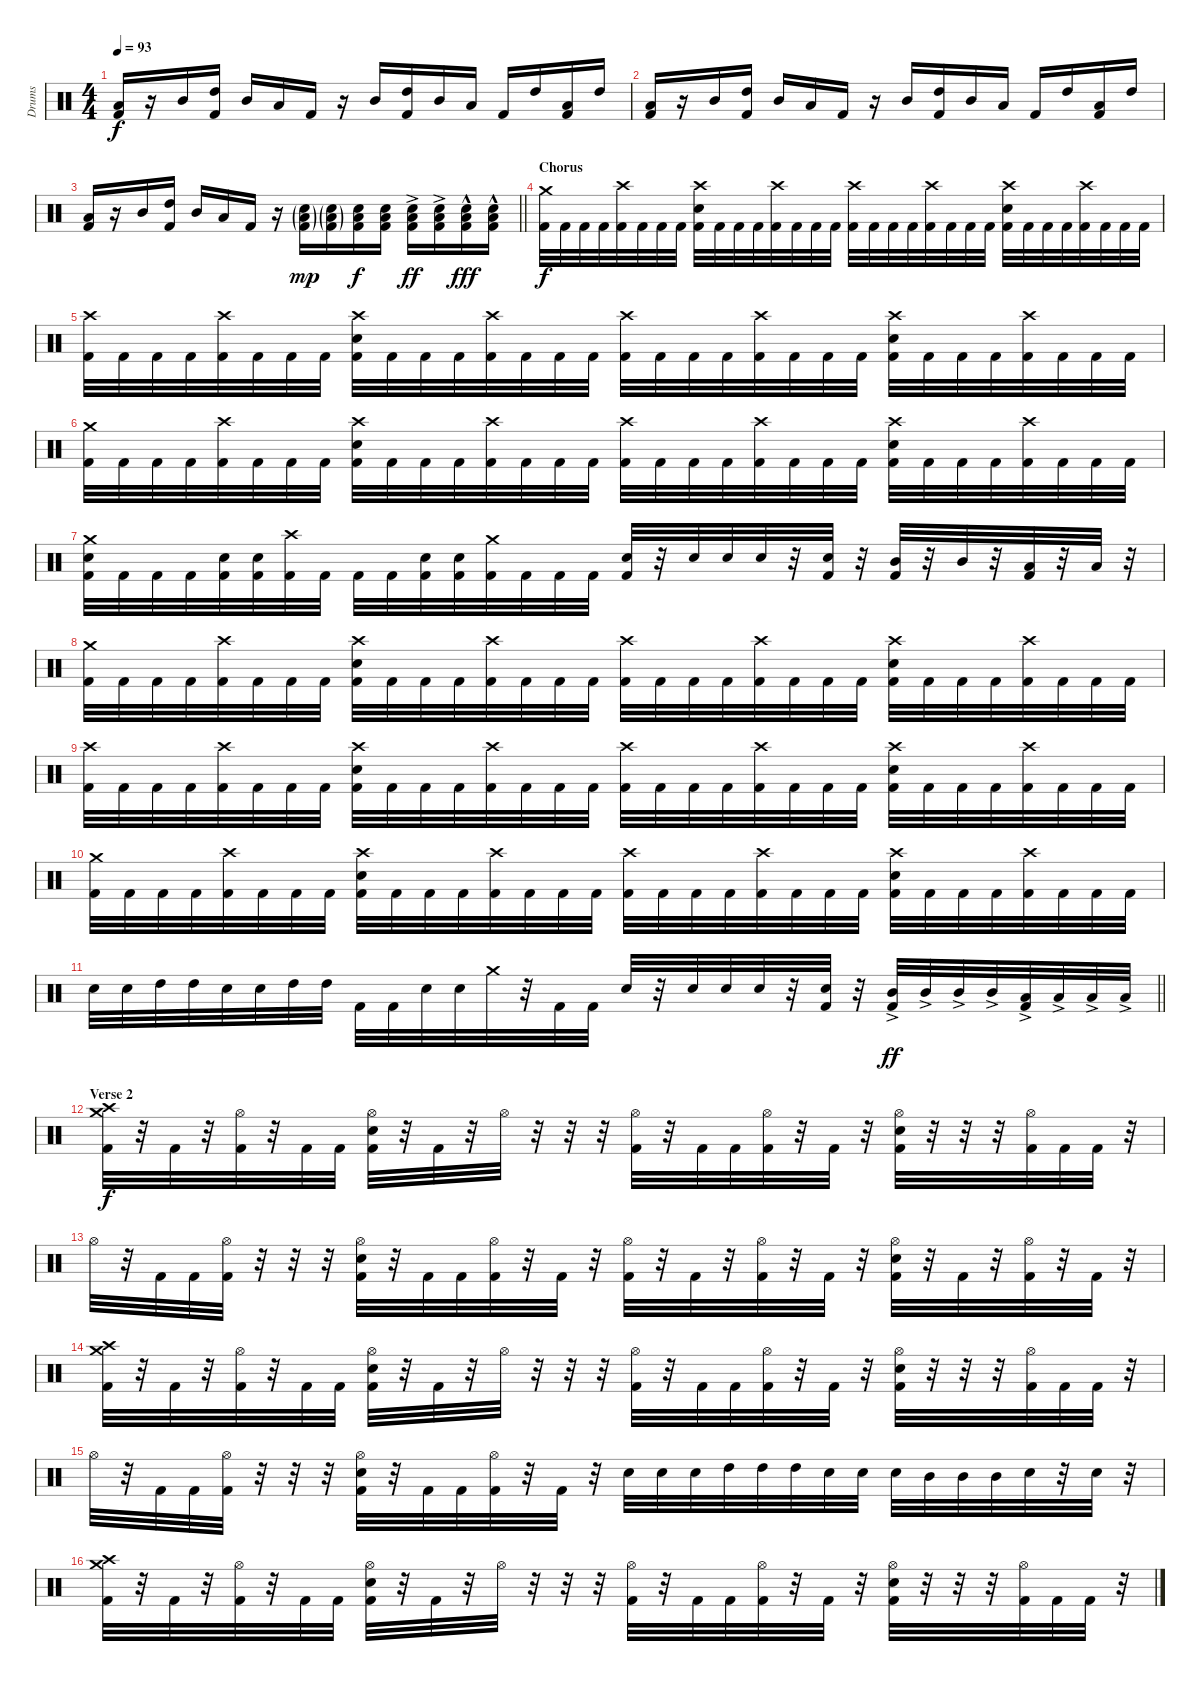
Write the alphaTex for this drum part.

\track ("Drums" "Drums") {instrument percussion}
\staff {score}
\articulation defaults
\ts (4 4)
\tempo 93
\clef neutral
\ks c
("Low Tom (hit)" "Kick (hit) 2").16{dy f} r.16 "Mid Tom (hit)".16 ("High Tom (hit)" "Kick (hit) 2").16 "Mid Tom (hit)".16 "Low Tom (hit)".16 "Kick (hit) 2".16 r.16 "Mid Tom (hit)".16 ("High Tom (hit)" "Kick (hit) 2").16 "Mid Tom (hit)".16 "Low Tom (hit)".16 "Kick (hit) 2".16 "High Tom (hit)".16 ("Low Tom (hit)" "Kick (hit) 2").16 "High Tom (hit)".16 |
("Low Tom (hit)" "Kick (hit) 2").16 r.16 "Mid Tom (hit)".16 ("High Tom (hit)" "Kick (hit) 2").16 "Mid Tom (hit)".16 "Low Tom (hit)".16 "Kick (hit) 2".16 r.16 "Mid Tom (hit)".16 ("High Tom (hit)" "Kick (hit) 2").16 "Mid Tom (hit)".16 "Low Tom (hit)".16 "Kick (hit) 2".16 "High Tom (hit)".16 ("Low Tom (hit)" "Kick (hit) 2").16 "High Tom (hit)".16 |
\barLineRight lightlight
("Low Tom (hit)" "Kick (hit) 2").16 r.16 "Mid Tom (hit)".16 ("High Tom (hit)" "Kick (hit) 2").16 "Mid Tom (hit)".16 "Low Tom (hit)".16 "Kick (hit) 2".16 r.16 ("Low Tom (hit)"{g} "Snare (hit) 2"{g} "Kick (hit) 2"{g}).16{dy mp} ("Low Tom (hit)"{g} "Snare (hit) 2"{g} "Kick (hit) 2"{g}).16 ("Low Tom (hit)" "Snare (hit) 2" "Kick (hit) 2").16{dy f} ("Low Tom (hit)" "Snare (hit) 2" "Kick (hit) 2").16 ("Low Tom (hit)"{ac} "Snare (hit) 2"{ac} "Kick (hit) 2"{ac}).16{dy ff} ("Low Tom (hit)"{ac} "Snare (hit) 2"{ac} "Kick (hit) 2"{ac}).16 ("Low Tom (hit)"{hac} "Snare (hit) 2"{hac} "Kick (hit) 2"{hac}).16{dy fff} ("Low Tom (hit)"{hac} "Snare (hit) 2"{hac} "Kick (hit) 2"{hac}).16 |
\section ("" "Chorus")
("Crash medium (hit)" "Kick (hit) 2").32{dy f} "Kick (hit) 2".32 "Kick (hit) 2".32 "Kick (hit) 2".32 ("Crash high (hit)" "Kick (hit) 2").32 "Kick (hit) 2".32 "Kick (hit) 2".32 "Kick (hit) 2".32 ("Crash high (hit)" "Snare (hit) 2" "Kick (hit) 2").32 "Kick (hit) 2".32 "Kick (hit) 2".32 "Kick (hit) 2".32 ("Crash high (hit)" "Kick (hit) 2").32 "Kick (hit) 2".32 "Kick (hit) 2".32 "Kick (hit) 2".32 ("Crash high (hit)" "Kick (hit) 2").32 "Kick (hit) 2".32 "Kick (hit) 2".32 "Kick (hit) 2".32 ("Crash high (hit)" "Kick (hit) 2").32 "Kick (hit) 2".32 "Kick (hit) 2".32 "Kick (hit) 2".32 ("Crash high (hit)" "Snare (hit) 2" "Kick (hit) 2").32 "Kick (hit) 2".32 "Kick (hit) 2".32 "Kick (hit) 2".32 ("Crash high (hit)" "Kick (hit) 2").32 "Kick (hit) 2".32 "Kick (hit) 2".32 "Kick (hit) 2".32 |
("Crash high (hit)" "Kick (hit) 2").32 "Kick (hit) 2".32 "Kick (hit) 2".32 "Kick (hit) 2".32 ("Crash high (hit)" "Kick (hit) 2").32 "Kick (hit) 2".32 "Kick (hit) 2".32 "Kick (hit) 2".32 ("Crash high (hit)" "Snare (hit) 2" "Kick (hit) 2").32 "Kick (hit) 2".32 "Kick (hit) 2".32 "Kick (hit) 2".32 ("Crash high (hit)" "Kick (hit) 2").32 "Kick (hit) 2".32 "Kick (hit) 2".32 "Kick (hit) 2".32 ("Crash high (hit)" "Kick (hit) 2").32 "Kick (hit) 2".32 "Kick (hit) 2".32 "Kick (hit) 2".32 ("Crash high (hit)" "Kick (hit) 2").32 "Kick (hit) 2".32 "Kick (hit) 2".32 "Kick (hit) 2".32 ("Crash high (hit)" "Snare (hit) 2" "Kick (hit) 2").32 "Kick (hit) 2".32 "Kick (hit) 2".32 "Kick (hit) 2".32 ("Crash high (hit)" "Kick (hit) 2").32 "Kick (hit) 2".32 "Kick (hit) 2".32 "Kick (hit) 2".32 |
("Crash medium (hit)" "Kick (hit) 2").32 "Kick (hit) 2".32 "Kick (hit) 2".32 "Kick (hit) 2".32 ("Crash high (hit)" "Kick (hit) 2").32 "Kick (hit) 2".32 "Kick (hit) 2".32 "Kick (hit) 2".32 ("Crash high (hit)" "Snare (hit) 2" "Kick (hit) 2").32 "Kick (hit) 2".32 "Kick (hit) 2".32 "Kick (hit) 2".32 ("Crash high (hit)" "Kick (hit) 2").32 "Kick (hit) 2".32 "Kick (hit) 2".32 "Kick (hit) 2".32 ("Crash high (hit)" "Kick (hit) 2").32 "Kick (hit) 2".32 "Kick (hit) 2".32 "Kick (hit) 2".32 ("Crash high (hit)" "Kick (hit) 2").32 "Kick (hit) 2".32 "Kick (hit) 2".32 "Kick (hit) 2".32 ("Crash high (hit)" "Snare (hit) 2" "Kick (hit) 2").32 "Kick (hit) 2".32 "Kick (hit) 2".32 "Kick (hit) 2".32 ("Crash high (hit)" "Kick (hit) 2").32 "Kick (hit) 2".32 "Kick (hit) 2".32 "Kick (hit) 2".32 |
("Crash medium (hit)" "Snare (hit) 2" "Kick (hit) 2").32 "Kick (hit) 2".32 "Kick (hit) 2".32 "Kick (hit) 2".32 ("Snare (hit) 2" "Kick (hit) 2").32 ("Snare (hit) 2" "Kick (hit) 2").32 ("Crash high (hit)" "Kick (hit) 2").32 "Kick (hit) 2".32 "Kick (hit) 2".32 "Kick (hit) 2".32 ("Snare (hit) 2" "Kick (hit) 2").32 ("Snare (hit) 2" "Kick (hit) 2").32 ("Crash medium (hit)" "Kick (hit) 2").32 "Kick (hit) 2".32 "Kick (hit) 2".32 "Kick (hit) 2".32 ("Snare (hit) 2" "Kick (hit) 2").32 r.32 "Snare (hit) 2".32 "Snare (hit) 2".32 "Snare (hit) 2".32 r.32 ("Snare (hit) 2" "Kick (hit) 2").32 r.32 ("Mid Tom (hit)" "Kick (hit) 2").32 r.32 "Mid Tom (hit)".32 r.32 ("Low Tom (hit)" "Kick (hit) 2").32 r.32 "Low Tom (hit)".32 r.32 |
("Crash medium (hit)" "Kick (hit) 2").32 "Kick (hit) 2".32 "Kick (hit) 2".32 "Kick (hit) 2".32 ("Crash high (hit)" "Kick (hit) 2").32 "Kick (hit) 2".32 "Kick (hit) 2".32 "Kick (hit) 2".32 ("Crash high (hit)" "Snare (hit) 2" "Kick (hit) 2").32 "Kick (hit) 2".32 "Kick (hit) 2".32 "Kick (hit) 2".32 ("Crash high (hit)" "Kick (hit) 2").32 "Kick (hit) 2".32 "Kick (hit) 2".32 "Kick (hit) 2".32 ("Crash high (hit)" "Kick (hit) 2").32 "Kick (hit) 2".32 "Kick (hit) 2".32 "Kick (hit) 2".32 ("Crash high (hit)" "Kick (hit) 2").32 "Kick (hit) 2".32 "Kick (hit) 2".32 "Kick (hit) 2".32 ("Crash high (hit)" "Snare (hit) 2" "Kick (hit) 2").32 "Kick (hit) 2".32 "Kick (hit) 2".32 "Kick (hit) 2".32 ("Crash high (hit)" "Kick (hit) 2").32 "Kick (hit) 2".32 "Kick (hit) 2".32 "Kick (hit) 2".32 |
("Crash high (hit)" "Kick (hit) 2").32 "Kick (hit) 2".32 "Kick (hit) 2".32 "Kick (hit) 2".32 ("Crash high (hit)" "Kick (hit) 2").32 "Kick (hit) 2".32 "Kick (hit) 2".32 "Kick (hit) 2".32 ("Crash high (hit)" "Snare (hit) 2" "Kick (hit) 2").32 "Kick (hit) 2".32 "Kick (hit) 2".32 "Kick (hit) 2".32 ("Crash high (hit)" "Kick (hit) 2").32 "Kick (hit) 2".32 "Kick (hit) 2".32 "Kick (hit) 2".32 ("Crash high (hit)" "Kick (hit) 2").32 "Kick (hit) 2".32 "Kick (hit) 2".32 "Kick (hit) 2".32 ("Crash high (hit)" "Kick (hit) 2").32 "Kick (hit) 2".32 "Kick (hit) 2".32 "Kick (hit) 2".32 ("Crash high (hit)" "Snare (hit) 2" "Kick (hit) 2").32 "Kick (hit) 2".32 "Kick (hit) 2".32 "Kick (hit) 2".32 ("Crash high (hit)" "Kick (hit) 2").32 "Kick (hit) 2".32 "Kick (hit) 2".32 "Kick (hit) 2".32 |
("Crash medium (hit)" "Kick (hit) 2").32 "Kick (hit) 2".32 "Kick (hit) 2".32 "Kick (hit) 2".32 ("Crash high (hit)" "Kick (hit) 2").32 "Kick (hit) 2".32 "Kick (hit) 2".32 "Kick (hit) 2".32 ("Crash high (hit)" "Snare (hit) 2" "Kick (hit) 2").32 "Kick (hit) 2".32 "Kick (hit) 2".32 "Kick (hit) 2".32 ("Crash high (hit)" "Kick (hit) 2").32 "Kick (hit) 2".32 "Kick (hit) 2".32 "Kick (hit) 2".32 ("Crash high (hit)" "Kick (hit) 2").32 "Kick (hit) 2".32 "Kick (hit) 2".32 "Kick (hit) 2".32 ("Crash high (hit)" "Kick (hit) 2").32 "Kick (hit) 2".32 "Kick (hit) 2".32 "Kick (hit) 2".32 ("Crash high (hit)" "Snare (hit) 2" "Kick (hit) 2").32 "Kick (hit) 2".32 "Kick (hit) 2".32 "Kick (hit) 2".32 ("Crash high (hit)" "Kick (hit) 2").32 "Kick (hit) 2".32 "Kick (hit) 2".32 "Kick (hit) 2".32 |
\barLineRight lightlight "Snare (hit) 2".32 "Snare (hit) 2".32 "High Tom (hit)".32 "High Tom (hit)".32 "Snare (hit) 2".32 "Snare (hit) 2".32 "High Tom (hit)".32 "High Tom (hit)".32 "Kick (hit) 2".32 "Kick (hit) 2".32 "Snare (hit) 2".32 "Snare (hit) 2".32 "Crash medium (hit)".32
r.32 "Kick (hit) 2".32 "Kick (hit) 2".32 "Snare (hit) 2".32 r.32 "Snare (hit) 2".32 "Snare (hit) 2".32 "Snare (hit) 2".32 r.32 ("Snare (hit) 2" "Kick (hit) 2").32 r.32 ("Mid Tom (hit)"{ac} "Kick (hit) 2").32{dy ff} "Mid Tom (hit)"{ac}.32 "Mid Tom (hit)"{ac}.32 "Mid Tom (hit)"{ac}.32 ("Low Tom (hit)"{ac} "Kick (hit) 2").32 "Low Tom (hit)"{ac}.32 "Low Tom (hit)"{ac}.32 "Low Tom (hit)"{ac}.32 |
\section ("" "Verse 2")
("Crash high (hit)" "Crash medium (hit)" "Kick (hit) 2").32{dy f} r.32 "Kick (hit) 2".32 r.32 ("Hi-Hat (open)" "Kick (hit) 2").32 r.32 "Kick (hit) 2".32 "Kick (hit) 2".32 ("Hi-Hat (open)" "Snare (hit) 2" "Kick (hit) 2").32 r.32 "Kick (hit) 2".32 r.32 "Hi-Hat (open)".32 r.32 r.32 r.32 ("Hi-Hat (open)" "Kick (hit) 2").32 r.32 "Kick (hit) 2".32 "Kick (hit) 2".32 ("Hi-Hat (open)" "Kick (hit) 2").32 r.32 "Kick (hit) 2".32 r.32 ("Hi-Hat (open)" "Snare (hit) 2" "Kick (hit) 2").32 r.32 r.32 r.32 ("Hi-Hat (open)" "Kick (hit) 2").32 "Kick (hit) 2".32 "Kick (hit) 2".32 r.32 |
"Hi-Hat (open)".32 r.32 "Kick (hit) 2".32 "Kick (hit) 2".32 ("Hi-Hat (open)" "Kick (hit) 2").32 r.32 r.32 r.32 ("Hi-Hat (open)" "Snare (hit) 2" "Kick (hit) 2").32 r.32 "Kick (hit) 2".32 "Kick (hit) 2".32 ("Hi-Hat (open)" "Kick (hit) 2").32 r.32 "Kick (hit) 2".32 r.32 ("Hi-Hat (open)" "Kick (hit) 2").32 r.32 "Kick (hit) 2".32 r.32 ("Hi-Hat (open)" "Kick (hit) 2").32 r.32 "Kick (hit) 2".32 r.32 ("Hi-Hat (open)" "Snare (hit) 2" "Kick (hit) 2").32 r.32 "Kick (hit) 2".32 r.32 ("Hi-Hat (open)" "Kick (hit) 2").32 r.32 "Kick (hit) 2".32 r.32 |
("Crash medium (hit)" "Crash high (hit)" "Kick (hit) 2").32 r.32 "Kick (hit) 2".32 r.32 ("Hi-Hat (open)" "Kick (hit) 2").32 r.32 "Kick (hit) 2".32 "Kick (hit) 2".32 ("Hi-Hat (open)" "Snare (hit) 2" "Kick (hit) 2").32 r.32 "Kick (hit) 2".32 r.32 "Hi-Hat (open)".32 r.32 r.32 r.32 ("Hi-Hat (open)" "Kick (hit) 2").32 r.32 "Kick (hit) 2".32 "Kick (hit) 2".32 ("Hi-Hat (open)" "Kick (hit) 2").32 r.32 "Kick (hit) 2".32 r.32 ("Hi-Hat (open)" "Snare (hit) 2" "Kick (hit) 2").32 r.32 r.32 r.32 ("Hi-Hat (open)" "Kick (hit) 2").32 "Kick (hit) 2".32 "Kick (hit) 2".32 r.32 |
"Hi-Hat (open)".32 r.32 "Kick (hit) 2".32 "Kick (hit) 2".32 ("Hi-Hat (open)" "Kick (hit) 2").32 r.32 r.32 r.32 ("Hi-Hat (open)" "Snare (hit) 2" "Kick (hit) 2").32 r.32 "Kick (hit) 2".32 "Kick (hit) 2".32 ("Hi-Hat (open)" "Kick (hit) 2").32 r.32 "Kick (hit) 2".32 r.32 "Snare (hit) 2".32 "Snare (hit) 2".32 "Snare (hit) 2".32 "High Tom (hit)".32 "High Tom (hit)".32 "High Tom (hit)".32 "Snare (hit) 2".32 "Snare (hit) 2".32 "Snare (hit) 2".32 "Mid Tom (hit)".32 "Mid Tom (hit)".32 "Mid Tom (hit)".32 "Snare (hit) 2".32 r.32 "Snare (hit) 2".32 r.32 |
("Crash high (hit)" "Crash medium (hit)" "Kick (hit) 2").32 r.32 "Kick (hit) 2".32 r.32 ("Hi-Hat (open)" "Kick (hit) 2").32 r.32 "Kick (hit) 2".32 "Kick (hit) 2".32 ("Hi-Hat (open)" "Snare (hit) 2" "Kick (hit) 2").32 r.32 "Kick (hit) 2".32 r.32 "Hi-Hat (open)".32 r.32 r.32 r.32 ("Hi-Hat (open)" "Kick (hit) 2").32 r.32 "Kick (hit) 2".32 "Kick (hit) 2".32 ("Hi-Hat (open)" "Kick (hit) 2").32 r.32 "Kick (hit) 2".32 r.32 ("Hi-Hat (open)" "Snare (hit) 2" "Kick (hit) 2").32 r.32 r.32 r.32 ("Hi-Hat (open)" "Kick (hit) 2").32 "Kick (hit) 2".32 "Kick (hit) 2".32 r.32
